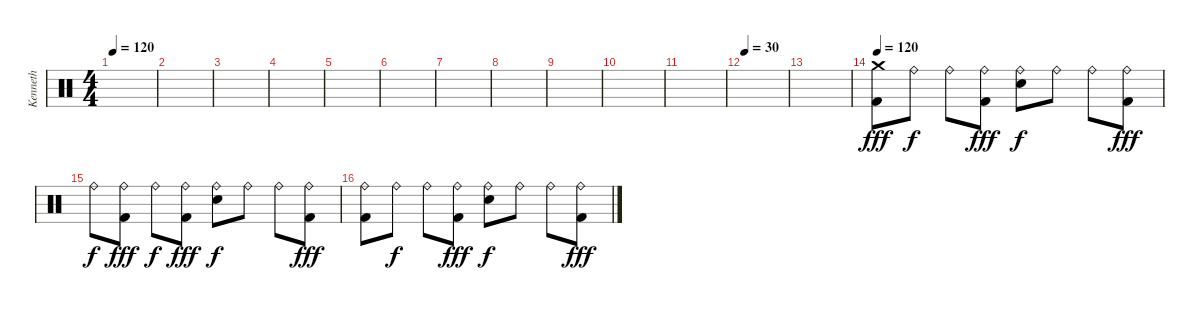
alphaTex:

\track ("Kenneth" "Kenneth") {instrument percussion}
\staff {score}
\articulation defaults
\ts (4 4)
\tempo 120
\clef neutral
\ks c
|
|
|
|
|
|
|
|
|
|
|
\tempo 30
|
|
\tempo 120
("Crash medium (hit)" "Kick (hit) 2").8{dy fff} "Ride (bell)".8{dy f} "Ride (bell)".8 ("Ride (bell)" "Kick (hit) 2").8{dy fff} ("Ride (bell)" "Snare (hit) 2").8{dy f} "Ride (bell)".8 "Ride (bell)".8 ("Ride (bell)" "Kick (hit) 2").8{dy fff} |
"Ride (bell)".8{dy f} ("Ride (bell)" "Kick (hit) 2").8{dy fff} "Ride (bell)".8{dy f} ("Ride (bell)" "Kick (hit) 2").8{dy fff} ("Ride (bell)" "Snare (hit) 2").8{dy f} "Ride (bell)".8 "Ride (bell)".8 ("Ride (bell)" "Kick (hit) 2").8{dy fff} |
("Ride (bell)" "Kick (hit) 2").8 "Ride (bell)".8{dy f} "Ride (bell)".8 ("Ride (bell)" "Kick (hit) 2").8{dy fff} ("Ride (bell)" "Snare (hit) 2").8{dy f} "Ride (bell)".8 "Ride (bell)".8 ("Ride (bell)" "Kick (hit) 2").8{dy fff}
